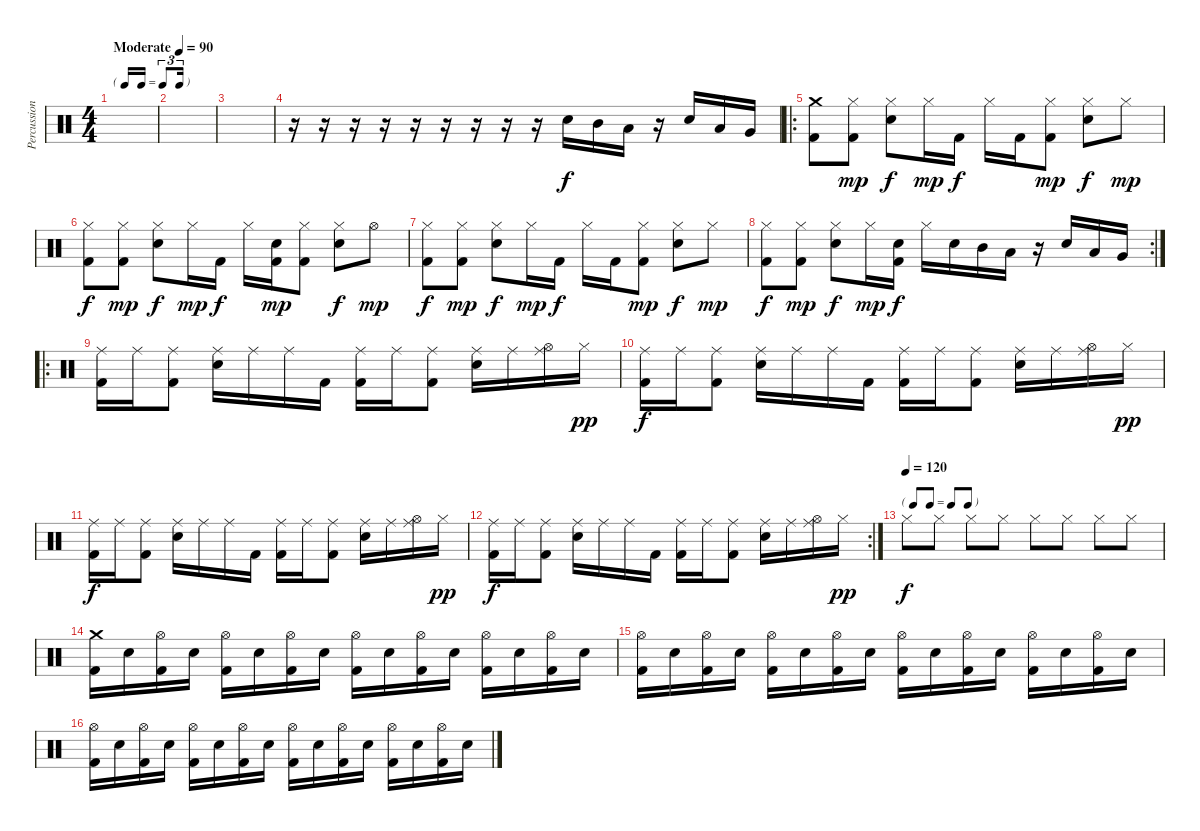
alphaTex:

\track ("Percussion" "Percussion") {instrument percussion}
\staff {score}
\articulation defaults
\ts (4 4)
\tf triplet16th
\tempo (90 "Moderate")
\clef neutral
\ks c
|
|
|
r.16 r.16 r.16 r.16 r.16 r.16 r.16 r.16 r.16 "Electric Snare (hit)".16 "Mid Tom (hit)".16 "Low Tom (hit)".16 r.16 "Electric Snare (hit)".16 "Low Tom (hit)".16 "Very Low Tom (hit)".16 |
\ro
("Crash medium (hit)" "Kick (hit) 2").8 ("Hi-Hat (closed)" "Kick (hit) 2").8{dy mp} ("Hi-Hat (closed)" "Electric Snare (hit)").8{dy f} "Hi-Hat (closed)".16{dy mp} "Kick (hit) 2".16{dy f} "Hi-Hat (closed)".16 "Kick (hit) 2".16 ("Hi-Hat (closed)" "Kick (hit) 2").8{dy mp} ("Hi-Hat (closed)" "Electric Snare (hit)").8{dy f} "Hi-Hat (closed)".8{dy mp} |
("Hi-Hat (closed)" "Kick (hit) 2").8{dy f} ("Hi-Hat (closed)" "Kick (hit) 2").8{dy mp} ("Hi-Hat (closed)" "Electric Snare (hit)").8{dy f} "Hi-Hat (closed)".16{dy mp} "Kick (hit) 2".16{dy f} "Hi-Hat (closed)".16 ("Electric Snare (hit)" "Kick (hit) 2").16{dy mp} ("Hi-Hat (closed)" "Kick (hit) 2").8 ("Hi-Hat (closed)" "Electric Snare (hit)").8{dy f} "Hi-Hat (open)".8{dy mp} |
("Hi-Hat (closed)" "Kick (hit) 2").8{dy f} ("Hi-Hat (closed)" "Kick (hit) 2").8{dy mp} ("Hi-Hat (closed)" "Electric Snare (hit)").8{dy f} "Hi-Hat (closed)".16{dy mp} "Kick (hit) 2".16{dy f} "Hi-Hat (closed)".16 "Kick (hit) 2".16 ("Hi-Hat (closed)" "Kick (hit) 2").8{dy mp} ("Hi-Hat (closed)" "Electric Snare (hit)").8{dy f} "Hi-Hat (closed)".8{dy mp} |
\rc 2
("Hi-Hat (closed)" "Kick (hit) 2").8{dy f} ("Hi-Hat (closed)" "Kick (hit) 2").8{dy mp} ("Hi-Hat (closed)" "Electric Snare (hit)").8{dy f} "Hi-Hat (closed)".16{dy mp} ("Electric Snare (hit)" "Kick (hit) 2").16{dy f} "Hi-Hat (closed)".16 "Electric Snare (hit)".16 "Mid Tom (hit)".16 "Low Tom (hit)".16 r.16 "Electric Snare (hit)".16 "Low Tom (hit)".16 "Very Low Tom (hit)".16 |
\ro
("Ride (middle)" "Kick (hit) 2").16 "Ride (middle)".16 ("Ride (middle)" "Kick (hit) 2").8 ("Ride (middle)" "Electric Snare (hit)").16 "Ride (middle)".16 "Ride (middle)".16 "Kick (hit) 2".16 ("Ride (middle)" "Kick (hit) 2").16 "Ride (middle)".16 ("Ride (middle)" "Kick (hit) 2").8 ("Ride (middle)" "Electric Snare (hit)").16 "Ride (middle)".16 ("Ride (middle)" "Hi-Hat (open)").16 "Hi-Hat (closed)".16{dy pp} |
("Ride (middle)" "Kick (hit) 2").16{dy f} "Ride (middle)".16 ("Ride (middle)" "Kick (hit) 2").8 ("Ride (middle)" "Electric Snare (hit)").16 "Ride (middle)".16 "Ride (middle)".16 "Kick (hit) 2".16 ("Ride (middle)" "Kick (hit) 2").16 "Ride (middle)".16 ("Ride (middle)" "Kick (hit) 2").8 ("Ride (middle)" "Electric Snare (hit)").16 "Ride (middle)".16 ("Ride (middle)" "Hi-Hat (open)").16 "Hi-Hat (closed)".16{dy pp} |
("Ride (middle)" "Kick (hit) 2").16{dy f} "Ride (middle)".16 ("Ride (middle)" "Kick (hit) 2").8 ("Ride (middle)" "Electric Snare (hit)").16 "Ride (middle)".16 "Ride (middle)".16 "Kick (hit) 2".16 ("Ride (middle)" "Kick (hit) 2").16 "Ride (middle)".16 ("Ride (middle)" "Kick (hit) 2").8 ("Ride (middle)" "Electric Snare (hit)").16 "Ride (middle)".16 ("Ride (middle)" "Hi-Hat (open)").16 "Hi-Hat (closed)".16{dy pp} |
\rc 2
("Ride (middle)" "Kick (hit) 2").16{dy f} "Ride (middle)".16 ("Ride (middle)" "Kick (hit) 2").8 ("Ride (middle)" "Electric Snare (hit)").16 "Ride (middle)".16 "Ride (middle)".16 "Kick (hit) 2".16 ("Ride (middle)" "Kick (hit) 2").16 "Ride (middle)".16 ("Ride (middle)" "Kick (hit) 2").8 ("Ride (middle)" "Electric Snare (hit)").16 "Ride (middle)".16 ("Ride (middle)" "Hi-Hat (open)").16 "Hi-Hat (closed)".16{dy pp} |
\tf none
\tempo (120)
"Hi-Hat (closed)".8{dy f} "Hi-Hat (closed)".8 "Hi-Hat (closed)".8 "Hi-Hat (closed)".8 "Hi-Hat (closed)".8 "Hi-Hat (closed)".8 "Hi-Hat (closed)".8 "Hi-Hat (closed)".8 |
("Crash medium (hit)" "Kick (hit) 2").16 "Electric Snare (hit)".16 ("Hi-Hat (open)" "Kick (hit) 2").16 "Electric Snare (hit)".16 ("Hi-Hat (open)" "Kick (hit) 2").16 "Electric Snare (hit)".16 ("Hi-Hat (open)" "Kick (hit) 2").16 "Electric Snare (hit)".16 ("Hi-Hat (open)" "Kick (hit) 2").16 "Electric Snare (hit)".16 ("Hi-Hat (open)" "Kick (hit) 2").16 "Electric Snare (hit)".16 ("Hi-Hat (open)" "Kick (hit) 2").16 "Electric Snare (hit)".16 ("Hi-Hat (open)" "Kick (hit) 2").16 "Electric Snare (hit)".16 |
("Hi-Hat (open)" "Kick (hit) 2").16 "Electric Snare (hit)".16 ("Hi-Hat (open)" "Kick (hit) 2").16 "Electric Snare (hit)".16 ("Hi-Hat (open)" "Kick (hit) 2").16 "Electric Snare (hit)".16 ("Hi-Hat (open)" "Kick (hit) 2").16 "Electric Snare (hit)".16 ("Hi-Hat (open)" "Kick (hit) 2").16 "Electric Snare (hit)".16 ("Hi-Hat (open)" "Kick (hit) 2").16 "Electric Snare (hit)".16 ("Hi-Hat (open)" "Kick (hit) 2").16 "Electric Snare (hit)".16 ("Hi-Hat (open)" "Kick (hit) 2").16 "Electric Snare (hit)".16 |
("Hi-Hat (open)" "Kick (hit) 2").16 "Electric Snare (hit)".16 ("Hi-Hat (open)" "Kick (hit) 2").16 "Electric Snare (hit)".16 ("Hi-Hat (open)" "Kick (hit) 2").16 "Electric Snare (hit)".16 ("Hi-Hat (open)" "Kick (hit) 2").16 "Electric Snare (hit)".16 ("Hi-Hat (open)" "Kick (hit) 2").16 "Electric Snare (hit)".16 ("Hi-Hat (open)" "Kick (hit) 2").16 "Electric Snare (hit)".16 ("Hi-Hat (open)" "Kick (hit) 2").16 "Electric Snare (hit)".16 ("Hi-Hat (open)" "Kick (hit) 2").16 "Electric Snare (hit)".16
